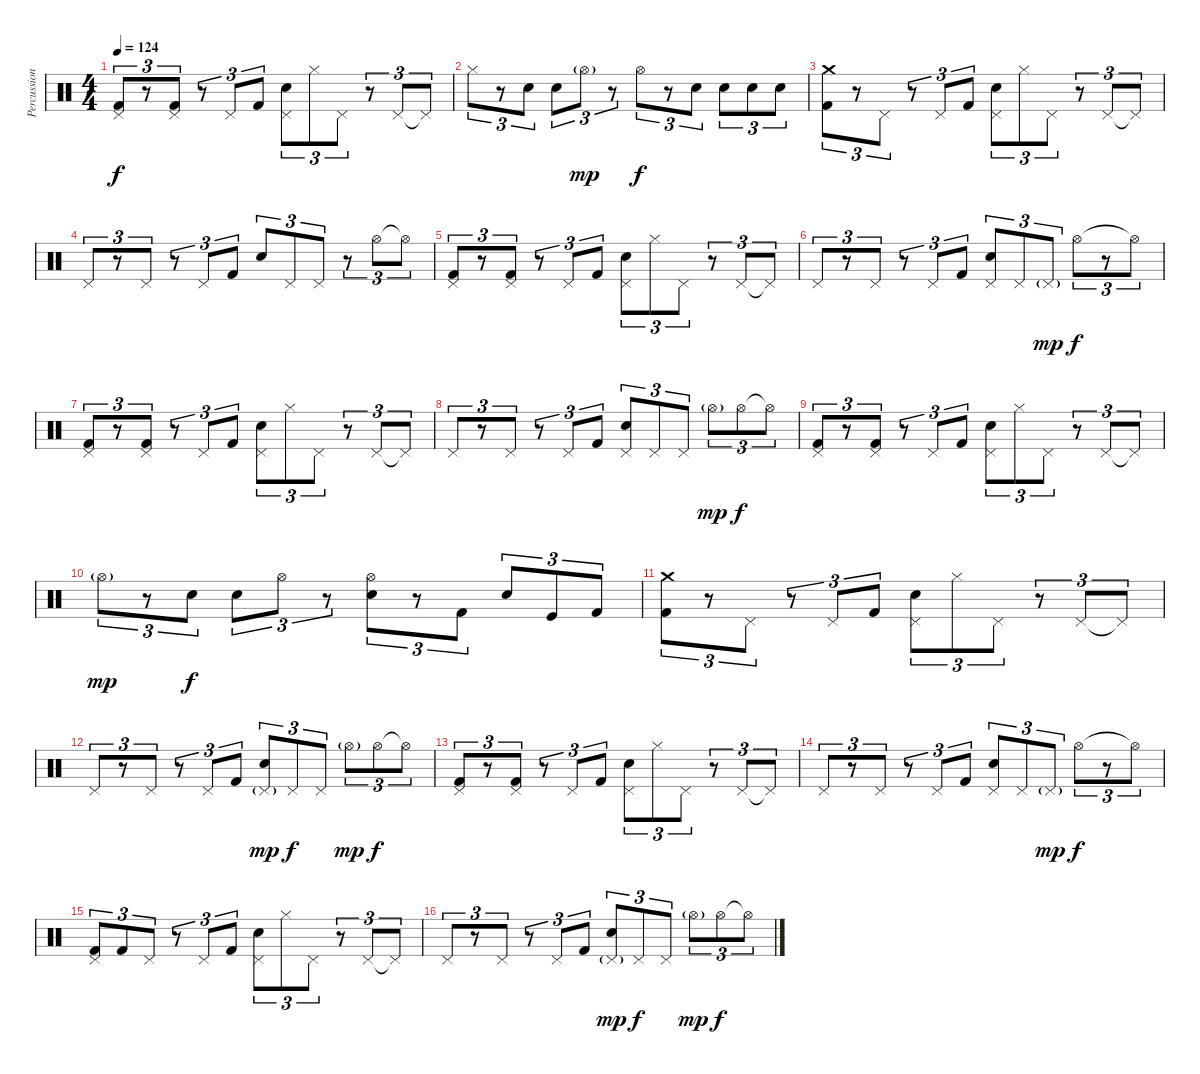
\track ("Percussions" "Percussion") {instrument percussion}
\staff {score}
\articulation defaults
\ts (4 4)
\tempo 124
\clef neutral
\ks c
("Pedal Hi-Hat (hit)" "Kick (hit) 2").8{tu (3 2) dy f} r.8{tu (3 2)} ("Pedal Hi-Hat (hit)" "Kick (hit) 2").8{tu (3 2)} r.8{tu (3 2)} "Pedal Hi-Hat (hit)".8{tu (3 2)} "Kick (hit) 2".8{tu (3 2)} ("Pedal Hi-Hat (hit)" "Electric Snare (hit)").8{tu (3 2)} "Hi-Hat (closed)".8{tu (3 2)} "Pedal Hi-Hat (hit)".8{tu (3 2)} r.8{tu (3 2)} "Pedal Hi-Hat (hit)".8{tu (3 2)} "Pedal Hi-Hat (hit)"{t}.8{tu (3 2)} |
"Hi-Hat (closed)".8{tu (3 2)} r.8{tu (3 2)} "Electric Snare (hit)".8{tu (3 2)} "Electric Snare (hit)".8{tu (3 2)} "Hi-Hat (open)"{g}.8{tu (3 2) dy mp} r.8{tu (3 2)} "Hi-Hat (open)".8{tu (3 2) dy f} r.8{tu (3 2)} "Electric Snare (hit)".8{tu (3 2)} "Electric Snare (hit)".8{tu (3 2)} "Electric Snare (hit)".8{tu (3 2)} "Electric Snare (hit)".8{tu (3 2)} |
("Crash medium (hit)" "Kick (hit) 2").8{tu (3 2)} r.8{tu (3 2)} "Pedal Hi-Hat (hit)".8{tu (3 2)} r.8{tu (3 2)} "Pedal Hi-Hat (hit)".8{tu (3 2)} "Kick (hit) 2".8{tu (3 2)} ("Pedal Hi-Hat (hit)" "Electric Snare (hit)").8{tu (3 2)} "Hi-Hat (closed)".8{tu (3 2)} "Pedal Hi-Hat (hit)".8{tu (3 2)} r.8{tu (3 2)} "Pedal Hi-Hat (hit)".8{tu (3 2)} "Pedal Hi-Hat (hit)"{t}.8{tu (3 2)} |
"Pedal Hi-Hat (hit)".8{tu (3 2)} r.8{tu (3 2)} "Pedal Hi-Hat (hit)".8{tu (3 2)} r.8{tu (3 2)} "Pedal Hi-Hat (hit)".8{tu (3 2)} "Kick (hit) 2".8{tu (3 2)} "Electric Snare (hit)".8{tu (3 2)} "Pedal Hi-Hat (hit)".8{tu (3 2)} "Pedal Hi-Hat (hit)".8{tu (3 2)} r.8{tu (3 2)} "Hi-Hat (open)".8{tu (3 2)} "Hi-Hat (open)"{t}.8{tu (3 2)} |
("Pedal Hi-Hat (hit)" "Kick (hit) 2").8{tu (3 2)} r.8{tu (3 2)} ("Pedal Hi-Hat (hit)" "Kick (hit) 2").8{tu (3 2)} r.8{tu (3 2)} "Pedal Hi-Hat (hit)".8{tu (3 2)} "Kick (hit) 2".8{tu (3 2)} ("Pedal Hi-Hat (hit)" "Electric Snare (hit)").8{tu (3 2)} "Hi-Hat (closed)".8{tu (3 2)} "Pedal Hi-Hat (hit)".8{tu (3 2)} r.8{tu (3 2)} "Pedal Hi-Hat (hit)".8{tu (3 2)} "Pedal Hi-Hat (hit)"{t}.8{tu (3 2)} |
"Pedal Hi-Hat (hit)".8{tu (3 2)} r.8{tu (3 2)} "Pedal Hi-Hat (hit)".8{tu (3 2)} r.8{tu (3 2)} "Pedal Hi-Hat (hit)".8{tu (3 2)} "Kick (hit) 2".8{tu (3 2)} ("Pedal Hi-Hat (hit)" "Electric Snare (hit)").8{tu (3 2)} "Pedal Hi-Hat (hit)".8{tu (3 2)} "Pedal Hi-Hat (hit)"{g}.8{tu (3 2) dy mp} "Hi-Hat (open)".8{tu (3 2) dy f} r.8{tu (3 2)} "Hi-Hat (open)"{t}.8{tu (3 2)} |
("Pedal Hi-Hat (hit)" "Kick (hit) 2").8{tu (3 2)} r.8{tu (3 2)} ("Pedal Hi-Hat (hit)" "Kick (hit) 2").8{tu (3 2)} r.8{tu (3 2)} "Pedal Hi-Hat (hit)".8{tu (3 2)} "Kick (hit) 2".8{tu (3 2)} ("Pedal Hi-Hat (hit)" "Electric Snare (hit)").8{tu (3 2)} "Hi-Hat (closed)".8{tu (3 2)} "Pedal Hi-Hat (hit)".8{tu (3 2)} r.8{tu (3 2)} "Pedal Hi-Hat (hit)".8{tu (3 2)} "Pedal Hi-Hat (hit)"{t}.8{tu (3 2)} |
"Pedal Hi-Hat (hit)".8{tu (3 2)} r.8{tu (3 2)} "Pedal Hi-Hat (hit)".8{tu (3 2)} r.8{tu (3 2)} "Pedal Hi-Hat (hit)".8{tu (3 2)} "Kick (hit) 2".8{tu (3 2)} ("Pedal Hi-Hat (hit)" "Electric Snare (hit)").8{tu (3 2)} "Pedal Hi-Hat (hit)".8{tu (3 2)} "Pedal Hi-Hat (hit)".8{tu (3 2)} "Hi-Hat (open)"{g}.8{tu (3 2) dy mp} "Hi-Hat (open)".8{tu (3 2) dy f} "Hi-Hat (open)"{t}.8{tu (3 2)} |
("Pedal Hi-Hat (hit)" "Kick (hit) 2").8{tu (3 2)} r.8{tu (3 2)} ("Pedal Hi-Hat (hit)" "Kick (hit) 2").8{tu (3 2)} r.8{tu (3 2)} "Pedal Hi-Hat (hit)".8{tu (3 2)} "Kick (hit) 2".8{tu (3 2)} ("Pedal Hi-Hat (hit)" "Electric Snare (hit)").8{tu (3 2)} "Hi-Hat (closed)".8{tu (3 2)} "Pedal Hi-Hat (hit)".8{tu (3 2)} r.8{tu (3 2)} "Pedal Hi-Hat (hit)".8{tu (3 2)} "Pedal Hi-Hat (hit)"{t}.8{tu (3 2)} |
"Hi-Hat (open)"{g}.8{tu (3 2) dy mp} r.8{tu (3 2)} "Electric Snare (hit)".8{tu (3 2) dy f} "Electric Snare (hit)".8{tu (3 2)} "Hi-Hat (open)".8{tu (3 2)} r.8{tu (3 2)} ("Hi-Hat (open)" "Electric Snare (hit)").8{tu (3 2)} r.8{tu (3 2)} "Kick (hit) 2".8{tu (3 2)} "Electric Snare (hit)".8{tu (3 2)} "Kick (hit)".8{tu (3 2)} "Kick (hit) 2".8{tu (3 2)} |
("Crash medium (hit)" "Kick (hit) 2").8{tu (3 2)} r.8{tu (3 2)} "Pedal Hi-Hat (hit)".8{tu (3 2)} r.8{tu (3 2)} "Pedal Hi-Hat (hit)".8{tu (3 2)} "Kick (hit) 2".8{tu (3 2)} ("Pedal Hi-Hat (hit)" "Electric Snare (hit)").8{tu (3 2)} "Hi-Hat (closed)".8{tu (3 2)} "Pedal Hi-Hat (hit)".8{tu (3 2)} r.8{tu (3 2)} "Pedal Hi-Hat (hit)".8{tu (3 2)} "Pedal Hi-Hat (hit)"{t}.8{tu (3 2)} |
"Pedal Hi-Hat (hit)".8{tu (3 2)} r.8{tu (3 2)} "Pedal Hi-Hat (hit)".8{tu (3 2)} r.8{tu (3 2)} "Pedal Hi-Hat (hit)".8{tu (3 2)} "Kick (hit) 2".8{tu (3 2)} ("Pedal Hi-Hat (hit)"{g} "Electric Snare (hit)").8{tu (3 2) dy mp} "Pedal Hi-Hat (hit)".8{tu (3 2) dy f} "Pedal Hi-Hat (hit)".8{tu (3 2)} "Hi-Hat (open)"{g}.8{tu (3 2) dy mp} "Hi-Hat (open)".8{tu (3 2) dy f} "Hi-Hat (open)"{t}.8{tu (3 2)} |
("Pedal Hi-Hat (hit)" "Kick (hit) 2").8{tu (3 2)} r.8{tu (3 2)} ("Pedal Hi-Hat (hit)" "Kick (hit) 2").8{tu (3 2)} r.8{tu (3 2)} "Pedal Hi-Hat (hit)".8{tu (3 2)} "Kick (hit) 2".8{tu (3 2)} ("Pedal Hi-Hat (hit)" "Electric Snare (hit)").8{tu (3 2)} "Hi-Hat (closed)".8{tu (3 2)} "Pedal Hi-Hat (hit)".8{tu (3 2)} r.8{tu (3 2)} "Pedal Hi-Hat (hit)".8{tu (3 2)} "Pedal Hi-Hat (hit)"{t}.8{tu (3 2)} |
"Pedal Hi-Hat (hit)".8{tu (3 2)} r.8{tu (3 2)} "Pedal Hi-Hat (hit)".8{tu (3 2)} r.8{tu (3 2)} "Pedal Hi-Hat (hit)".8{tu (3 2)} "Kick (hit) 2".8{tu (3 2)} ("Pedal Hi-Hat (hit)" "Electric Snare (hit)").8{tu (3 2)} "Pedal Hi-Hat (hit)".8{tu (3 2)} "Pedal Hi-Hat (hit)"{g}.8{tu (3 2) dy mp} "Hi-Hat (open)".8{tu (3 2) dy f} r.8{tu (3 2)} "Hi-Hat (open)"{t}.8{tu (3 2)} |
("Pedal Hi-Hat (hit)" "Kick (hit) 2").8{tu (3 2)} "Kick (hit) 2".8{tu (3 2)} "Pedal Hi-Hat (hit)".8{tu (3 2)} r.8{tu (3 2)} "Pedal Hi-Hat (hit)".8{tu (3 2)} "Kick (hit) 2".8{tu (3 2)} ("Pedal Hi-Hat (hit)" "Electric Snare (hit)").8{tu (3 2)} "Hi-Hat (closed)".8{tu (3 2)} "Pedal Hi-Hat (hit)".8{tu (3 2)} r.8{tu (3 2)} "Pedal Hi-Hat (hit)".8{tu (3 2)} "Pedal Hi-Hat (hit)"{t}.8{tu (3 2)} |
"Pedal Hi-Hat (hit)".8{tu (3 2)} r.8{tu (3 2)} "Pedal Hi-Hat (hit)".8{tu (3 2)} r.8{tu (3 2)} "Pedal Hi-Hat (hit)".8{tu (3 2)} "Kick (hit) 2".8{tu (3 2)} ("Pedal Hi-Hat (hit)"{g} "Electric Snare (hit)").8{tu (3 2) dy mp} "Pedal Hi-Hat (hit)".8{tu (3 2) dy f} "Pedal Hi-Hat (hit)".8{tu (3 2)} "Hi-Hat (open)"{g}.8{tu (3 2) dy mp} "Hi-Hat (open)".8{tu (3 2) dy f} "Hi-Hat (open)"{t}.8{tu (3 2)}
